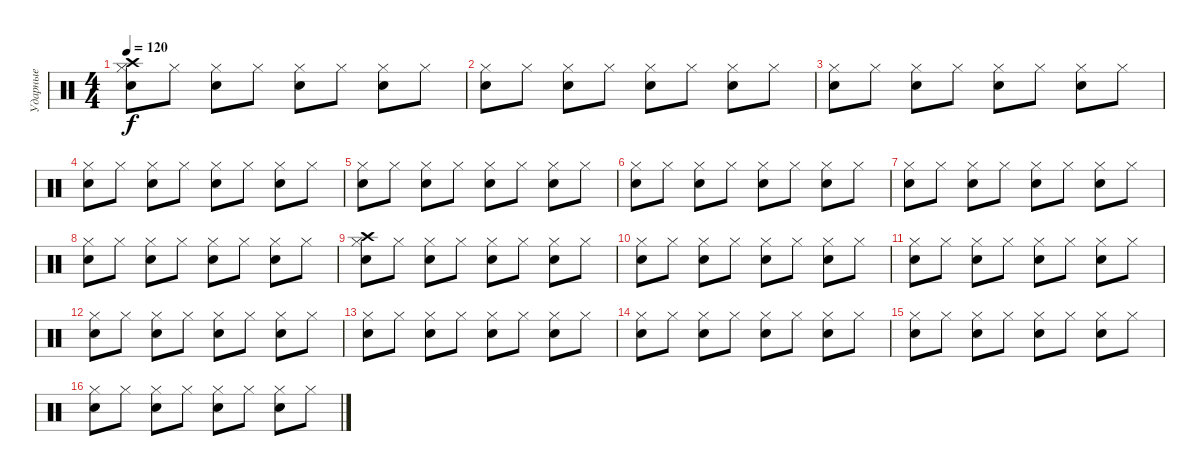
\track ("Ударные" "Ударные") {instrument percussion}
\staff {score}
\articulation defaults
\ts (4 4)
\tempo 120
\clef neutral
\ks c
("Hi-Hat (closed)" "Crash high (hit)" "Snare (hit) 2").8{dy f} "Hi-Hat (closed)".8 ("Hi-Hat (closed)" "Snare (hit) 2").8 "Hi-Hat (closed)".8 ("Hi-Hat (closed)" "Snare (hit) 2").8 "Hi-Hat (closed)".8 ("Hi-Hat (closed)" "Snare (hit) 2").8 "Hi-Hat (closed)".8 |
("Hi-Hat (closed)" "Snare (hit) 2").8 "Hi-Hat (closed)".8 ("Hi-Hat (closed)" "Snare (hit) 2").8 "Hi-Hat (closed)".8 ("Hi-Hat (closed)" "Snare (hit) 2").8 "Hi-Hat (closed)".8 ("Hi-Hat (closed)" "Snare (hit) 2").8 "Hi-Hat (closed)".8 |
("Hi-Hat (closed)" "Snare (hit) 2").8 "Hi-Hat (closed)".8 ("Hi-Hat (closed)" "Snare (hit) 2").8 "Hi-Hat (closed)".8 ("Hi-Hat (closed)" "Snare (hit) 2").8 "Hi-Hat (closed)".8 ("Hi-Hat (closed)" "Snare (hit) 2").8 "Hi-Hat (closed)".8 |
("Hi-Hat (closed)" "Snare (hit) 2").8 "Hi-Hat (closed)".8 ("Hi-Hat (closed)" "Snare (hit) 2").8 "Hi-Hat (closed)".8 ("Hi-Hat (closed)" "Snare (hit) 2").8 "Hi-Hat (closed)".8 ("Hi-Hat (closed)" "Snare (hit) 2").8 "Hi-Hat (closed)".8 |
("Hi-Hat (closed)" "Snare (hit) 2").8 "Hi-Hat (closed)".8 ("Hi-Hat (closed)" "Snare (hit) 2").8 "Hi-Hat (closed)".8 ("Hi-Hat (closed)" "Snare (hit) 2").8 "Hi-Hat (closed)".8 ("Hi-Hat (closed)" "Snare (hit) 2").8 "Hi-Hat (closed)".8 |
("Hi-Hat (closed)" "Snare (hit) 2").8 "Hi-Hat (closed)".8 ("Hi-Hat (closed)" "Snare (hit) 2").8 "Hi-Hat (closed)".8 ("Hi-Hat (closed)" "Snare (hit) 2").8 "Hi-Hat (closed)".8 ("Hi-Hat (closed)" "Snare (hit) 2").8 "Hi-Hat (closed)".8 |
("Hi-Hat (closed)" "Snare (hit) 2").8 "Hi-Hat (closed)".8 ("Hi-Hat (closed)" "Snare (hit) 2").8 "Hi-Hat (closed)".8 ("Hi-Hat (closed)" "Snare (hit) 2").8 "Hi-Hat (closed)".8 ("Hi-Hat (closed)" "Snare (hit) 2").8 "Hi-Hat (closed)".8 |
("Hi-Hat (closed)" "Snare (hit) 2").8 "Hi-Hat (closed)".8 ("Hi-Hat (closed)" "Snare (hit) 2").8 "Hi-Hat (closed)".8 ("Hi-Hat (closed)" "Snare (hit) 2").8 "Hi-Hat (closed)".8 ("Hi-Hat (closed)" "Snare (hit) 2").8 "Hi-Hat (closed)".8 |
("Hi-Hat (closed)" "Crash high (hit)" "Snare (hit) 2").8 "Hi-Hat (closed)".8 ("Hi-Hat (closed)" "Snare (hit) 2").8 "Hi-Hat (closed)".8 ("Hi-Hat (closed)" "Snare (hit) 2").8 "Hi-Hat (closed)".8 ("Hi-Hat (closed)" "Snare (hit) 2").8 "Hi-Hat (closed)".8 |
("Hi-Hat (closed)" "Snare (hit) 2").8 "Hi-Hat (closed)".8 ("Hi-Hat (closed)" "Snare (hit) 2").8 "Hi-Hat (closed)".8 ("Hi-Hat (closed)" "Snare (hit) 2").8 "Hi-Hat (closed)".8 ("Hi-Hat (closed)" "Snare (hit) 2").8 "Hi-Hat (closed)".8 |
("Hi-Hat (closed)" "Snare (hit) 2").8 "Hi-Hat (closed)".8 ("Hi-Hat (closed)" "Snare (hit) 2").8 "Hi-Hat (closed)".8 ("Hi-Hat (closed)" "Snare (hit) 2").8 "Hi-Hat (closed)".8 ("Hi-Hat (closed)" "Snare (hit) 2").8 "Hi-Hat (closed)".8 |
("Hi-Hat (closed)" "Snare (hit) 2").8 "Hi-Hat (closed)".8 ("Hi-Hat (closed)" "Snare (hit) 2").8 "Hi-Hat (closed)".8 ("Hi-Hat (closed)" "Snare (hit) 2").8 "Hi-Hat (closed)".8 ("Hi-Hat (closed)" "Snare (hit) 2").8 "Hi-Hat (closed)".8 |
("Hi-Hat (closed)" "Snare (hit) 2").8 "Hi-Hat (closed)".8 ("Hi-Hat (closed)" "Snare (hit) 2").8 "Hi-Hat (closed)".8 ("Hi-Hat (closed)" "Snare (hit) 2").8 "Hi-Hat (closed)".8 ("Hi-Hat (closed)" "Snare (hit) 2").8 "Hi-Hat (closed)".8 |
("Hi-Hat (closed)" "Snare (hit) 2").8 "Hi-Hat (closed)".8 ("Hi-Hat (closed)" "Snare (hit) 2").8 "Hi-Hat (closed)".8 ("Hi-Hat (closed)" "Snare (hit) 2").8 "Hi-Hat (closed)".8 ("Hi-Hat (closed)" "Snare (hit) 2").8 "Hi-Hat (closed)".8 |
("Hi-Hat (closed)" "Snare (hit) 2").8 "Hi-Hat (closed)".8 ("Hi-Hat (closed)" "Snare (hit) 2").8 "Hi-Hat (closed)".8 ("Hi-Hat (closed)" "Snare (hit) 2").8 "Hi-Hat (closed)".8 ("Hi-Hat (closed)" "Snare (hit) 2").8 "Hi-Hat (closed)".8 |
("Hi-Hat (closed)" "Snare (hit) 2").8 "Hi-Hat (closed)".8 ("Hi-Hat (closed)" "Snare (hit) 2").8 "Hi-Hat (closed)".8 ("Hi-Hat (closed)" "Snare (hit) 2").8 "Hi-Hat (closed)".8 ("Hi-Hat (closed)" "Snare (hit) 2").8 "Hi-Hat (closed)".8
